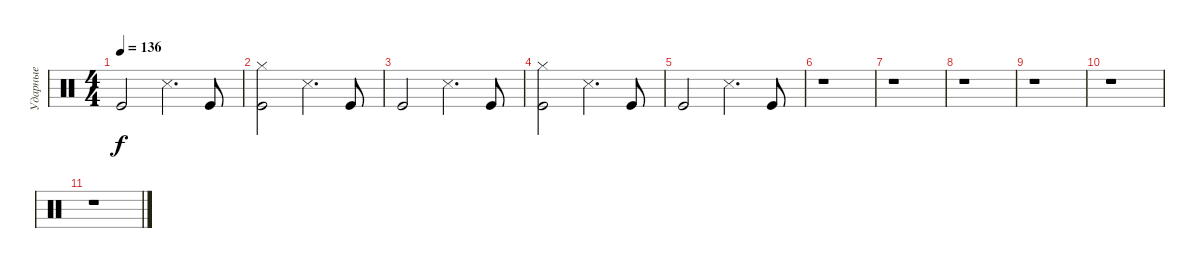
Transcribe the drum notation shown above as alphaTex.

\track ("Ударные" "Ударные") {instrument percussion}
\staff {score}
\articulation defaults
\ts (4 4)
\tempo 136
\clef neutral
\ks c "Kick (hit)".2{dy f} "Snare (side stick) 3".4{d} "Kick (hit)".8
|
("Kick (hit)" "Hi-Hat (closed)").2 "Snare (side stick) 3".4{d} "Kick (hit)".8 |
"Kick (hit)".2 "Snare (side stick) 3".4{d} "Kick (hit)".8 |
("Kick (hit)" "Hi-Hat (closed)").2 "Snare (side stick) 3".4{d} "Kick (hit)".8 |
"Kick (hit)".2 "Snare (side stick) 3".4{d} "Kick (hit)".8 |
r.1 |
r.1 |
r.1 |
r.1 |
r.1 |
r.1
